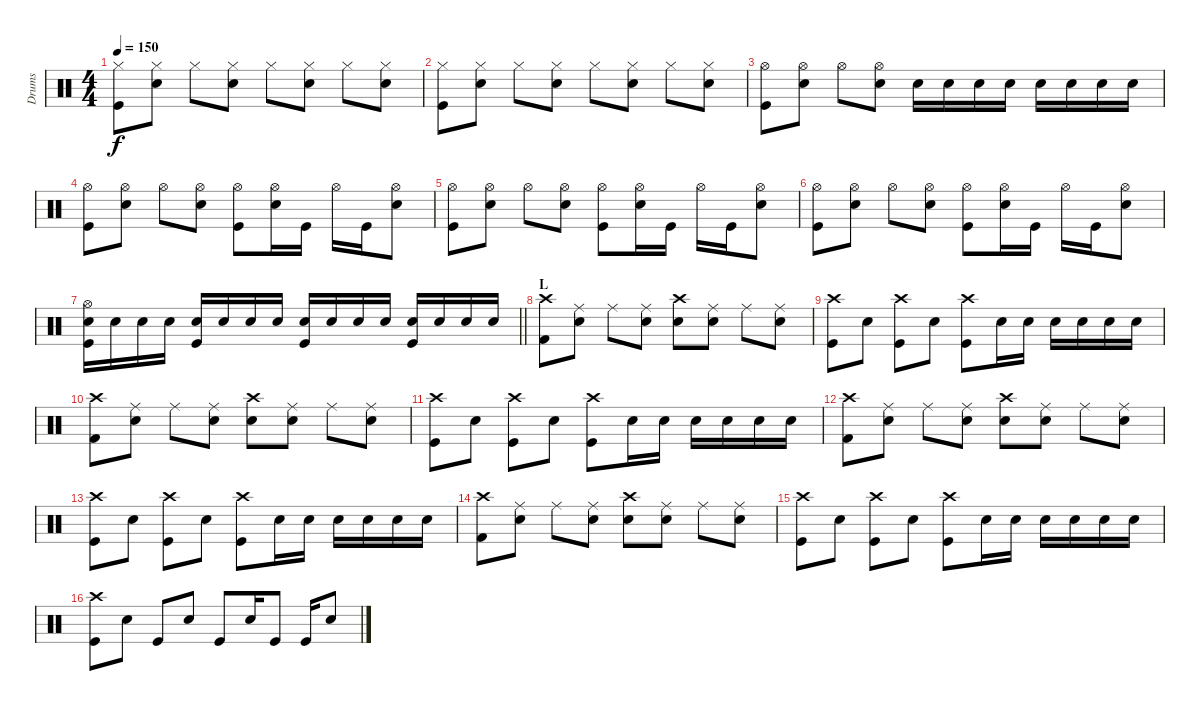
\track ("Drums" "Drums") {instrument percussion}
\staff {score}
\articulation defaults
\ts (4 4)
\tempo 150
\clef neutral
\ks c
("Hi-Hat (closed)" "Kick (hit)").8{dy f} ("Hi-Hat (closed)" "Snare (hit) 2").8 "Hi-Hat (closed)".8 ("Hi-Hat (closed)" "Snare (hit) 2").8 "Hi-Hat (closed)".8 ("Hi-Hat (closed)" "Snare (hit) 2").8 "Hi-Hat (closed)".8 ("Hi-Hat (closed)" "Snare (hit) 2").8 |
("Hi-Hat (closed)" "Kick (hit)").8 ("Hi-Hat (closed)" "Snare (hit) 2").8 "Hi-Hat (closed)".8 ("Hi-Hat (closed)" "Snare (hit) 2").8 "Hi-Hat (closed)".8 ("Hi-Hat (closed)" "Snare (hit) 2").8 "Hi-Hat (closed)".8 ("Hi-Hat (closed)" "Snare (hit) 2").8 |
("Hi-Hat (open)" "Kick (hit)").8 ("Hi-Hat (open)" "Snare (hit) 2").8 "Hi-Hat (open)".8 ("Hi-Hat (open)" "Snare (hit) 2").8 "Snare (hit) 2".16 "Snare (hit) 2".16 "Snare (hit) 2".16 "Snare (hit) 2".16 "Snare (hit) 2".16 "Snare (hit) 2".16 "Snare (hit) 2".16 "Snare (hit) 2".16 |
("Hi-Hat (open)" "Kick (hit)").8 ("Hi-Hat (open)" "Snare (hit) 2").8 "Hi-Hat (open)".8 ("Hi-Hat (open)" "Snare (hit) 2").8 ("Hi-Hat (open)" "Kick (hit)").8 ("Hi-Hat (open)" "Snare (hit) 2").16 "Kick (hit)".16 "Hi-Hat (open)".16 "Kick (hit)".16 ("Hi-Hat (open)" "Snare (hit) 2").8 |
("Hi-Hat (open)" "Kick (hit)").8 ("Hi-Hat (open)" "Snare (hit) 2").8 "Hi-Hat (open)".8 ("Hi-Hat (open)" "Snare (hit) 2").8 ("Hi-Hat (open)" "Kick (hit)").8 ("Hi-Hat (open)" "Snare (hit) 2").16 "Kick (hit)".16 "Hi-Hat (open)".16 "Kick (hit)".16 ("Hi-Hat (open)" "Snare (hit) 2").8 |
("Hi-Hat (open)" "Kick (hit)").8 ("Hi-Hat (open)" "Snare (hit) 2").8 "Hi-Hat (open)".8 ("Hi-Hat (open)" "Snare (hit) 2").8 ("Hi-Hat (open)" "Kick (hit)").8 ("Hi-Hat (open)" "Snare (hit) 2").16 "Kick (hit)".16 "Hi-Hat (open)".16 "Kick (hit)".16 ("Hi-Hat (open)" "Snare (hit) 2").8 |
\barLineRight lightlight
("Hi-Hat (open)" "Snare (hit) 2" "Kick (hit)").16 "Snare (hit) 2".16 "Snare (hit) 2".16 "Snare (hit) 2".16 ("Snare (hit) 2" "Kick (hit)").16 "Snare (hit) 2".16 "Snare (hit) 2".16 "Snare (hit) 2".16 ("Snare (hit) 2" "Kick (hit)").16 "Snare (hit) 2".16 "Snare (hit) 2".16 "Snare (hit) 2".16 ("Snare (hit) 2" "Kick (hit)").16 "Snare (hit) 2".16 "Snare (hit) 2".16 "Snare (hit) 2".16 |
\section ("" "L")
("Crash high (hit)" "Kick (hit) 2").8 ("Ride (middle)" "Snare (hit) 2").8 "Ride (middle)".8 ("Ride (middle)" "Snare (hit) 2").8 ("Crash high (hit)" "Snare (hit) 2").8 ("Ride (middle)" "Snare (hit) 2").8 "Ride (middle)".8 ("Ride (middle)" "Snare (hit) 2").8 |
("Crash high (hit)" "Kick (hit)").8 "Snare (hit) 2".8 ("Crash high (hit)" "Kick (hit)").8 "Snare (hit) 2".8 ("Crash high (hit)" "Kick (hit)").8 "Snare (hit) 2".16 "Snare (hit) 2".16 "Snare (hit) 2".16 "Snare (hit) 2".16 "Snare (hit) 2".16 "Snare (hit) 2".16 |
("Crash high (hit)" "Kick (hit) 2").8 ("Ride (middle)" "Snare (hit) 2").8 "Ride (middle)".8 ("Ride (middle)" "Snare (hit) 2").8 ("Crash high (hit)" "Snare (hit) 2").8 ("Ride (middle)" "Snare (hit) 2").8 "Ride (middle)".8 ("Ride (middle)" "Snare (hit) 2").8 |
("Crash high (hit)" "Kick (hit)").8 "Snare (hit) 2".8 ("Crash high (hit)" "Kick (hit)").8 "Snare (hit) 2".8 ("Crash high (hit)" "Kick (hit)").8 "Snare (hit) 2".16 "Snare (hit) 2".16 "Snare (hit) 2".16 "Snare (hit) 2".16 "Snare (hit) 2".16 "Snare (hit) 2".16 |
("Crash high (hit)" "Kick (hit) 2").8 ("Ride (middle)" "Snare (hit) 2").8 "Ride (middle)".8 ("Ride (middle)" "Snare (hit) 2").8 ("Crash high (hit)" "Snare (hit) 2").8 ("Ride (middle)" "Snare (hit) 2").8 "Ride (middle)".8 ("Ride (middle)" "Snare (hit) 2").8 |
("Crash high (hit)" "Kick (hit)").8 "Snare (hit) 2".8 ("Crash high (hit)" "Kick (hit)").8 "Snare (hit) 2".8 ("Crash high (hit)" "Kick (hit)").8 "Snare (hit) 2".16 "Snare (hit) 2".16 "Snare (hit) 2".16 "Snare (hit) 2".16 "Snare (hit) 2".16 "Snare (hit) 2".16 |
("Crash high (hit)" "Kick (hit) 2").8 ("Ride (middle)" "Snare (hit) 2").8 "Ride (middle)".8 ("Ride (middle)" "Snare (hit) 2").8 ("Crash high (hit)" "Snare (hit) 2").8 ("Ride (middle)" "Snare (hit) 2").8 "Ride (middle)".8 ("Ride (middle)" "Snare (hit) 2").8 |
("Crash high (hit)" "Kick (hit)").8 "Snare (hit) 2".8 ("Crash high (hit)" "Kick (hit)").8 "Snare (hit) 2".8 ("Crash high (hit)" "Kick (hit)").8 "Snare (hit) 2".16 "Snare (hit) 2".16 "Snare (hit) 2".16 "Snare (hit) 2".16 "Snare (hit) 2".16 "Snare (hit) 2".16 |
("Crash high (hit)" "Kick (hit)").8 "Snare (hit) 2".8 "Kick (hit)".8 "Snare (hit) 2".8 "Kick (hit)".8 "Snare (hit) 2".16 "Kick (hit)".8 "Kick (hit)".16 "Snare (hit) 2".8
